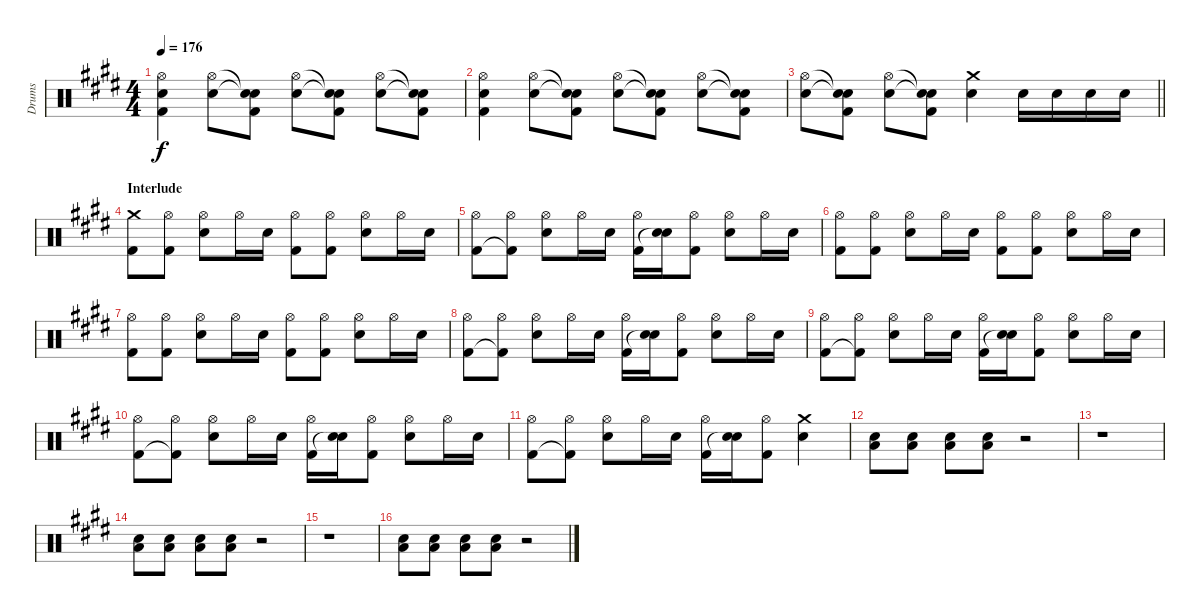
\track ("Drums" "Drums") {instrument percussion}
\staff {score}
\articulation defaults
\ts (4 4)
\tempo 176
\clef neutral
\ks c#minor
("Hi-Hat (open)" "Electric Snare (hit)" "Kick (hit) 2").4{dy f} ("Hi-Hat (open)" "Electric Snare (hit)").8 ("Snare (hit)"{t} "Snare (hit)"{t} "Kick (hit) 2").8 ("Hi-Hat (open)" "Electric Snare (hit)").8 ("Snare (hit)"{t} "Snare (hit)"{t} "Kick (hit) 2").8 ("Hi-Hat (open)" "Electric Snare (hit)").8 ("Snare (hit)"{t} "Snare (hit)"{t} "Kick (hit) 2").8 |
("Hi-Hat (open)" "Electric Snare (hit)" "Kick (hit) 2").4 ("Hi-Hat (open)" "Electric Snare (hit)").8 ("Snare (hit)"{t} "Snare (hit)"{t} "Kick (hit) 2").8 ("Hi-Hat (open)" "Electric Snare (hit)").8 ("Snare (hit)"{t} "Snare (hit)"{t} "Kick (hit) 2").8 ("Hi-Hat (open)" "Electric Snare (hit)").8 ("Snare (hit)"{t} "Snare (hit)"{t} "Kick (hit) 2").8 |
\barLineRight lightlight
("Hi-Hat (open)" "Electric Snare (hit)").8 ("Snare (hit)"{t} "Snare (hit)"{t} "Kick (hit) 2").8 ("Hi-Hat (open)" "Electric Snare (hit)").8 ("Snare (hit)"{t} "Snare (hit)"{t} "Kick (hit) 2").8 ("Crash medium (hit)" "Electric Snare (hit)").4 "Electric Snare (hit)".16 "Electric Snare (hit)".16 "Electric Snare (hit)".16 "Electric Snare (hit)".16 |
\section ("" "Interlude")
("Crash medium (hit)" "Kick (hit) 2").8 ("Hi-Hat (open)" "Kick (hit) 2").8 ("Hi-Hat (open)" "Electric Snare (hit)").8 "Hi-Hat (open)".16 "Electric Snare (hit)".16 ("Hi-Hat (open)" "Kick (hit) 2").8 ("Hi-Hat (open)" "Kick (hit) 2").8 ("Hi-Hat (open)" "Electric Snare (hit)").8 "Hi-Hat (open)".16 "Electric Snare (hit)".16 |
("Hi-Hat (open)" "Kick (hit) 2").8 ("Hi-Hat (open)" "Kick (hit) 2"{t}).8 ("Hi-Hat (open)" "Electric Snare (hit)").8 "Hi-Hat (open)".16 "Electric Snare (hit)".16 ("Hi-Hat (open)" "Kick (hit) 2").16 ("Electric Snare (hit)" "Snare (hit)"{t}).16 ("Hi-Hat (open)" "Kick (hit) 2").8 ("Hi-Hat (open)" "Electric Snare (hit)").8 "Hi-Hat (open)".16 "Electric Snare (hit)".16 |
("Hi-Hat (open)" "Kick (hit) 2").8 ("Hi-Hat (open)" "Kick (hit) 2").8 ("Hi-Hat (open)" "Electric Snare (hit)").8 "Hi-Hat (open)".16 "Electric Snare (hit)".16 ("Hi-Hat (open)" "Kick (hit) 2").8 ("Hi-Hat (open)" "Kick (hit) 2").8 ("Hi-Hat (open)" "Electric Snare (hit)").8 "Hi-Hat (open)".16 "Electric Snare (hit)".16 |
("Hi-Hat (open)" "Kick (hit) 2").8 ("Hi-Hat (open)" "Kick (hit) 2").8 ("Hi-Hat (open)" "Electric Snare (hit)").8 "Hi-Hat (open)".16 "Electric Snare (hit)".16 ("Hi-Hat (open)" "Kick (hit) 2").8 ("Hi-Hat (open)" "Kick (hit) 2").8 ("Hi-Hat (open)" "Electric Snare (hit)").8 "Hi-Hat (open)".16 "Electric Snare (hit)".16 |
("Hi-Hat (open)" "Kick (hit) 2").8 ("Hi-Hat (open)" "Kick (hit) 2"{t}).8 ("Hi-Hat (open)" "Electric Snare (hit)").8 "Hi-Hat (open)".16 "Electric Snare (hit)".16 ("Hi-Hat (open)" "Kick (hit) 2").16 ("Electric Snare (hit)" "Snare (hit)"{t}).16 ("Hi-Hat (open)" "Kick (hit) 2").8 ("Hi-Hat (open)" "Electric Snare (hit)").8 "Hi-Hat (open)".16 "Electric Snare (hit)".16 |
("Hi-Hat (open)" "Kick (hit) 2").8 ("Hi-Hat (open)" "Kick (hit) 2"{t}).8 ("Hi-Hat (open)" "Electric Snare (hit)").8 "Hi-Hat (open)".16 "Electric Snare (hit)".16 ("Hi-Hat (open)" "Kick (hit) 2").16 ("Electric Snare (hit)" "Snare (hit)"{t}).16 ("Hi-Hat (open)" "Kick (hit) 2").8 ("Hi-Hat (open)" "Electric Snare (hit)").8 "Hi-Hat (open)".16 "Electric Snare (hit)".16 |
("Hi-Hat (open)" "Kick (hit) 2").8 ("Hi-Hat (open)" "Kick (hit) 2"{t}).8 ("Hi-Hat (open)" "Electric Snare (hit)").8 "Hi-Hat (open)".16 "Electric Snare (hit)".16 ("Hi-Hat (open)" "Kick (hit) 2").16 ("Electric Snare (hit)" "Snare (hit)"{t}).16 ("Hi-Hat (open)" "Kick (hit) 2").8 ("Hi-Hat (open)" "Electric Snare (hit)").8 "Hi-Hat (open)".16 "Electric Snare (hit)".16 |
("Hi-Hat (open)" "Kick (hit) 2").8 ("Hi-Hat (open)" "Kick (hit) 2"{t}).8 ("Hi-Hat (open)" "Electric Snare (hit)").8 "Hi-Hat (open)".16 "Electric Snare (hit)".16 ("Hi-Hat (open)" "Kick (hit) 2").16 ("Electric Snare (hit)" "Snare (hit)"{t}).16 ("Hi-Hat (open)" "Kick (hit) 2").8 ("Crash medium (hit)" "Electric Snare (hit)").4 |
("Electric Snare (hit)" "Low Floor Tom (hit)").8 ("Electric Snare (hit)" "Low Floor Tom (hit)").8 ("Electric Snare (hit)" "Low Floor Tom (hit)").8 ("Electric Snare (hit)" "Low Floor Tom (hit)").8 r.2 |
r.1 |
("Electric Snare (hit)" "Low Floor Tom (hit)").8 ("Electric Snare (hit)" "Low Floor Tom (hit)").8 ("Electric Snare (hit)" "Low Floor Tom (hit)").8 ("Electric Snare (hit)" "Low Floor Tom (hit)").8 r.2 |
r.1 |
("Electric Snare (hit)" "Low Floor Tom (hit)").8 ("Electric Snare (hit)" "Low Floor Tom (hit)").8 ("Electric Snare (hit)" "Low Floor Tom (hit)").8 ("Electric Snare (hit)" "Low Floor Tom (hit)").8 r.2
